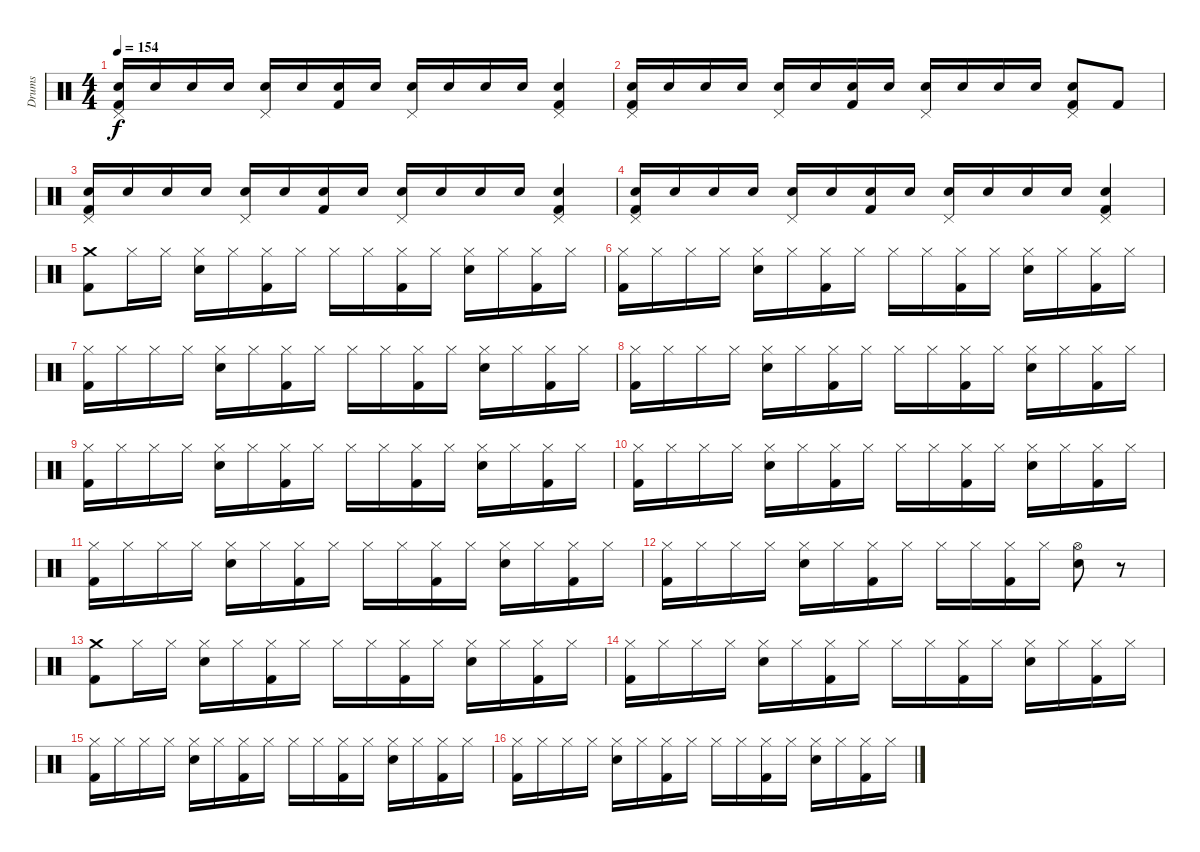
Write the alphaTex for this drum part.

\track ("Drums" "Drums") {instrument percussion}
\staff {score}
\articulation defaults
\ts (4 4)
\tempo 154
\clef neutral
\ks c
("Pedal Hi-Hat (hit)" "Electric Snare (hit)" "Kick (hit) 2").16{dy f} "Electric Snare (hit)".16 "Electric Snare (hit)".16 "Electric Snare (hit)".16 ("Pedal Hi-Hat (hit)" "Electric Snare (hit)").16 "Electric Snare (hit)".16 ("Kick (hit) 2" "Electric Snare (hit)").16 "Electric Snare (hit)".16 ("Pedal Hi-Hat (hit)" "Electric Snare (hit)").16 "Electric Snare (hit)".16 "Electric Snare (hit)".16 "Electric Snare (hit)".16 ("Kick (hit) 2" "Electric Snare (hit)" "Pedal Hi-Hat (hit)").4 |
("Pedal Hi-Hat (hit)" "Electric Snare (hit)" "Kick (hit) 2").16 "Electric Snare (hit)".16 "Electric Snare (hit)".16 "Electric Snare (hit)".16 ("Pedal Hi-Hat (hit)" "Electric Snare (hit)").16 "Electric Snare (hit)".16 ("Kick (hit) 2" "Electric Snare (hit)").16 "Electric Snare (hit)".16 ("Pedal Hi-Hat (hit)" "Electric Snare (hit)").16 "Electric Snare (hit)".16 "Electric Snare (hit)".16 "Electric Snare (hit)".16 ("Kick (hit) 2" "Electric Snare (hit)" "Pedal Hi-Hat (hit)").8 "Kick (hit) 2".8 |
("Pedal Hi-Hat (hit)" "Electric Snare (hit)" "Kick (hit) 2").16 "Electric Snare (hit)".16 "Electric Snare (hit)".16 "Electric Snare (hit)".16 ("Pedal Hi-Hat (hit)" "Electric Snare (hit)").16 "Electric Snare (hit)".16 ("Kick (hit) 2" "Electric Snare (hit)").16 "Electric Snare (hit)".16 ("Pedal Hi-Hat (hit)" "Electric Snare (hit)").16 "Electric Snare (hit)".16 "Electric Snare (hit)".16 "Electric Snare (hit)".16 ("Kick (hit) 2" "Electric Snare (hit)" "Pedal Hi-Hat (hit)").4 |
("Pedal Hi-Hat (hit)" "Electric Snare (hit)" "Kick (hit) 2").16 "Electric Snare (hit)".16 "Electric Snare (hit)".16 "Electric Snare (hit)".16 ("Pedal Hi-Hat (hit)" "Electric Snare (hit)").16 "Electric Snare (hit)".16 ("Kick (hit) 2" "Electric Snare (hit)").16 "Electric Snare (hit)".16 ("Pedal Hi-Hat (hit)" "Electric Snare (hit)").16 "Electric Snare (hit)".16 "Electric Snare (hit)".16 "Electric Snare (hit)".16 ("Kick (hit) 2" "Electric Snare (hit)" "Pedal Hi-Hat (hit)").4 |
("Crash medium (hit)" "Kick (hit) 2").8 "Hi-Hat (closed)".16 "Hi-Hat (closed)".16 ("Hi-Hat (closed)" "Electric Snare (hit)").16 "Hi-Hat (closed)".16 ("Kick (hit) 2" "Hi-Hat (closed)").16 "Hi-Hat (closed)".16 "Hi-Hat (closed)".16 "Hi-Hat (closed)".16 ("Kick (hit) 2" "Hi-Hat (closed)").16 "Hi-Hat (closed)".16 ("Electric Snare (hit)" "Hi-Hat (closed)").16 "Hi-Hat (closed)".16 ("Kick (hit) 2" "Hi-Hat (closed)").16 "Hi-Hat (closed)".16 |
("Hi-Hat (closed)" "Kick (hit) 2").16 "Hi-Hat (closed)".16 "Hi-Hat (closed)".16 "Hi-Hat (closed)".16 ("Hi-Hat (closed)" "Electric Snare (hit)").16 "Hi-Hat (closed)".16 ("Kick (hit) 2" "Hi-Hat (closed)").16 "Hi-Hat (closed)".16 "Hi-Hat (closed)".16 "Hi-Hat (closed)".16 ("Kick (hit) 2" "Hi-Hat (closed)").16 "Hi-Hat (closed)".16 ("Electric Snare (hit)" "Hi-Hat (closed)").16 "Hi-Hat (closed)".16 ("Kick (hit) 2" "Hi-Hat (closed)").16 "Hi-Hat (closed)".16 |
("Hi-Hat (closed)" "Kick (hit) 2").16 "Hi-Hat (closed)".16 "Hi-Hat (closed)".16 "Hi-Hat (closed)".16 ("Hi-Hat (closed)" "Electric Snare (hit)").16 "Hi-Hat (closed)".16 ("Kick (hit) 2" "Hi-Hat (closed)").16 "Hi-Hat (closed)".16 "Hi-Hat (closed)".16 "Hi-Hat (closed)".16 ("Kick (hit) 2" "Hi-Hat (closed)").16 "Hi-Hat (closed)".16 ("Electric Snare (hit)" "Hi-Hat (closed)").16 "Hi-Hat (closed)".16 ("Kick (hit) 2" "Hi-Hat (closed)").16 "Hi-Hat (closed)".16 |
("Hi-Hat (closed)" "Kick (hit) 2").16 "Hi-Hat (closed)".16 "Hi-Hat (closed)".16 "Hi-Hat (closed)".16 ("Hi-Hat (closed)" "Electric Snare (hit)").16 "Hi-Hat (closed)".16 ("Kick (hit) 2" "Hi-Hat (closed)").16 "Hi-Hat (closed)".16 "Hi-Hat (closed)".16 "Hi-Hat (closed)".16 ("Kick (hit) 2" "Hi-Hat (closed)").16 "Hi-Hat (closed)".16 ("Electric Snare (hit)" "Hi-Hat (closed)").16 "Hi-Hat (closed)".16 ("Kick (hit) 2" "Hi-Hat (closed)").16 "Hi-Hat (closed)".16 |
("Hi-Hat (closed)" "Kick (hit) 2").16 "Hi-Hat (closed)".16 "Hi-Hat (closed)".16 "Hi-Hat (closed)".16 ("Hi-Hat (closed)" "Electric Snare (hit)").16 "Hi-Hat (closed)".16 ("Kick (hit) 2" "Hi-Hat (closed)").16 "Hi-Hat (closed)".16 "Hi-Hat (closed)".16 "Hi-Hat (closed)".16 ("Kick (hit) 2" "Hi-Hat (closed)").16 "Hi-Hat (closed)".16 ("Electric Snare (hit)" "Hi-Hat (closed)").16 "Hi-Hat (closed)".16 ("Kick (hit) 2" "Hi-Hat (closed)").16 "Hi-Hat (closed)".16 |
("Hi-Hat (closed)" "Kick (hit) 2").16 "Hi-Hat (closed)".16 "Hi-Hat (closed)".16 "Hi-Hat (closed)".16 ("Hi-Hat (closed)" "Electric Snare (hit)").16 "Hi-Hat (closed)".16 ("Kick (hit) 2" "Hi-Hat (closed)").16 "Hi-Hat (closed)".16 "Hi-Hat (closed)".16 "Hi-Hat (closed)".16 ("Kick (hit) 2" "Hi-Hat (closed)").16 "Hi-Hat (closed)".16 ("Electric Snare (hit)" "Hi-Hat (closed)").16 "Hi-Hat (closed)".16 ("Kick (hit) 2" "Hi-Hat (closed)").16 "Hi-Hat (closed)".16 |
("Hi-Hat (closed)" "Kick (hit) 2").16 "Hi-Hat (closed)".16 "Hi-Hat (closed)".16 "Hi-Hat (closed)".16 ("Hi-Hat (closed)" "Electric Snare (hit)").16 "Hi-Hat (closed)".16 ("Kick (hit) 2" "Hi-Hat (closed)").16 "Hi-Hat (closed)".16 "Hi-Hat (closed)".16 "Hi-Hat (closed)".16 ("Kick (hit) 2" "Hi-Hat (closed)").16 "Hi-Hat (closed)".16 ("Electric Snare (hit)" "Hi-Hat (closed)").16 "Hi-Hat (closed)".16 ("Kick (hit) 2" "Hi-Hat (closed)").16 "Hi-Hat (closed)".16 |
("Hi-Hat (closed)" "Kick (hit) 2").16 "Hi-Hat (closed)".16 "Hi-Hat (closed)".16 "Hi-Hat (closed)".16 ("Hi-Hat (closed)" "Electric Snare (hit)").16 "Hi-Hat (closed)".16 ("Kick (hit) 2" "Hi-Hat (closed)").16 "Hi-Hat (closed)".16 "Hi-Hat (closed)".16 "Hi-Hat (closed)".16 ("Kick (hit) 2" "Hi-Hat (closed)").16 "Hi-Hat (closed)".16 ("Hi-Hat (open)" "Electric Snare (hit)").8 r.8 |
("Crash medium (hit)" "Kick (hit) 2").8 "Hi-Hat (closed)".16 "Hi-Hat (closed)".16 ("Hi-Hat (closed)" "Electric Snare (hit)").16 "Hi-Hat (closed)".16 ("Kick (hit) 2" "Hi-Hat (closed)").16 "Hi-Hat (closed)".16 "Hi-Hat (closed)".16 "Hi-Hat (closed)".16 ("Kick (hit) 2" "Hi-Hat (closed)").16 "Hi-Hat (closed)".16 ("Electric Snare (hit)" "Hi-Hat (closed)").16 "Hi-Hat (closed)".16 ("Kick (hit) 2" "Hi-Hat (closed)").16 "Hi-Hat (closed)".16 |
("Hi-Hat (closed)" "Kick (hit) 2").16 "Hi-Hat (closed)".16 "Hi-Hat (closed)".16 "Hi-Hat (closed)".16 ("Hi-Hat (closed)" "Electric Snare (hit)").16 "Hi-Hat (closed)".16 ("Kick (hit) 2" "Hi-Hat (closed)").16 "Hi-Hat (closed)".16 "Hi-Hat (closed)".16 "Hi-Hat (closed)".16 ("Kick (hit) 2" "Hi-Hat (closed)").16 "Hi-Hat (closed)".16 ("Electric Snare (hit)" "Hi-Hat (closed)").16 "Hi-Hat (closed)".16 ("Kick (hit) 2" "Hi-Hat (closed)").16 "Hi-Hat (closed)".16 |
("Hi-Hat (closed)" "Kick (hit) 2").16 "Hi-Hat (closed)".16 "Hi-Hat (closed)".16 "Hi-Hat (closed)".16 ("Hi-Hat (closed)" "Electric Snare (hit)").16 "Hi-Hat (closed)".16 ("Kick (hit) 2" "Hi-Hat (closed)").16 "Hi-Hat (closed)".16 "Hi-Hat (closed)".16 "Hi-Hat (closed)".16 ("Kick (hit) 2" "Hi-Hat (closed)").16 "Hi-Hat (closed)".16 ("Electric Snare (hit)" "Hi-Hat (closed)").16 "Hi-Hat (closed)".16 ("Kick (hit) 2" "Hi-Hat (closed)").16 "Hi-Hat (closed)".16 |
("Hi-Hat (closed)" "Kick (hit) 2").16 "Hi-Hat (closed)".16 "Hi-Hat (closed)".16 "Hi-Hat (closed)".16 ("Hi-Hat (closed)" "Electric Snare (hit)").16 "Hi-Hat (closed)".16 ("Kick (hit) 2" "Hi-Hat (closed)").16 "Hi-Hat (closed)".16 "Hi-Hat (closed)".16 "Hi-Hat (closed)".16 ("Kick (hit) 2" "Hi-Hat (closed)").16 "Hi-Hat (closed)".16 ("Electric Snare (hit)" "Hi-Hat (closed)").16 "Hi-Hat (closed)".16 ("Kick (hit) 2" "Hi-Hat (closed)").16 "Hi-Hat (closed)".16
